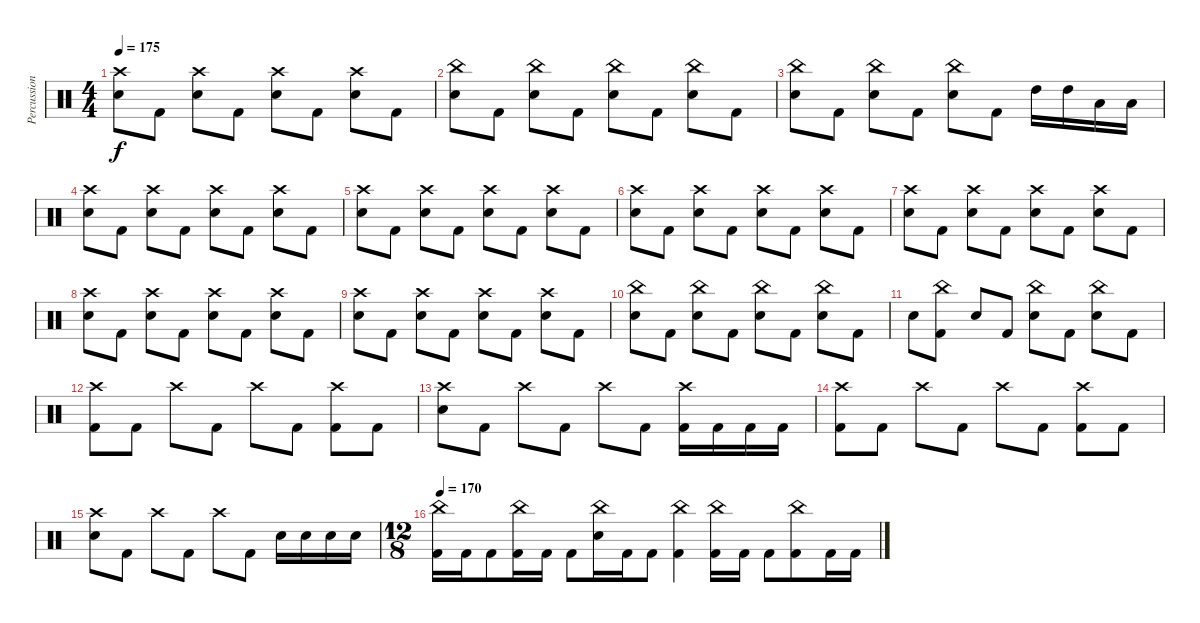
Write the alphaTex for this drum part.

\track ("Percussion" "Percussion") {instrument percussion}
\staff {score}
\articulation defaults
\ts (4 4)
\tempo 175
\clef neutral
\ks c
("Crash high (hit)" "Snare (hit) 2").8{dy f} "Kick (hit) 2".8 ("Crash high (hit)" "Snare (hit) 2").8 "Kick (hit) 2".8 ("Crash high (hit)" "Snare (hit) 2").8 "Kick (hit) 2".8 ("Crash high (hit)" "Snare (hit) 2").8 "Kick (hit) 2".8 |
("China (hit)" "Snare (hit) 2").8 "Kick (hit) 2".8 ("China (hit)" "Snare (hit) 2").8 "Kick (hit) 2".8 ("China (hit)" "Snare (hit) 2").8 "Kick (hit) 2".8 ("China (hit)" "Snare (hit) 2").8 "Kick (hit) 2".8 |
("China (hit)" "Snare (hit) 2").8 "Kick (hit) 2".8 ("China (hit)" "Snare (hit) 2").8 "Kick (hit) 2".8 ("China (hit)" "Snare (hit) 2").8 "Kick (hit) 2".8 "High Tom (hit)".16 "High Tom (hit)".16 "Low Tom (hit)".16 "Low Tom (hit)".16 |
("Crash high (hit)" "Snare (hit) 2").8 "Kick (hit) 2".8 ("Crash high (hit)" "Snare (hit) 2").8 "Kick (hit) 2".8 ("Crash high (hit)" "Snare (hit) 2").8 "Kick (hit) 2".8 ("Crash high (hit)" "Snare (hit) 2").8 "Kick (hit) 2".8 |
("Crash high (hit)" "Snare (hit) 2").8 "Kick (hit) 2".8 ("Crash high (hit)" "Snare (hit) 2").8 "Kick (hit) 2".8 ("Crash high (hit)" "Snare (hit) 2").8 "Kick (hit) 2".8 ("Crash high (hit)" "Snare (hit) 2").8 "Kick (hit) 2".8 |
("Crash high (hit)" "Snare (hit) 2").8 "Kick (hit) 2".8 ("Crash high (hit)" "Snare (hit) 2").8 "Kick (hit) 2".8 ("Crash high (hit)" "Snare (hit) 2").8 "Kick (hit) 2".8 ("Crash high (hit)" "Snare (hit) 2").8 "Kick (hit) 2".8 |
("Crash high (hit)" "Snare (hit) 2").8 "Kick (hit) 2".8 ("Crash high (hit)" "Snare (hit) 2").8 "Kick (hit) 2".8 ("Crash high (hit)" "Snare (hit) 2").8 "Kick (hit) 2".8 ("Crash high (hit)" "Snare (hit) 2").8 "Kick (hit) 2".8 |
("Crash high (hit)" "Snare (hit) 2").8 "Kick (hit) 2".8 ("Crash high (hit)" "Snare (hit) 2").8 "Kick (hit) 2".8 ("Crash high (hit)" "Snare (hit) 2").8 "Kick (hit) 2".8 ("Crash high (hit)" "Snare (hit) 2").8 "Kick (hit) 2".8 |
("Crash high (hit)" "Snare (hit) 2").8 "Kick (hit) 2".8 ("Crash high (hit)" "Snare (hit) 2").8 "Kick (hit) 2".8 ("Crash high (hit)" "Snare (hit) 2").8 "Kick (hit) 2".8 ("Crash high (hit)" "Snare (hit) 2").8 "Kick (hit) 2".8 |
("China (hit)" "Snare (hit) 2").8 "Kick (hit) 2".8 ("China (hit)" "Snare (hit) 2").8 "Kick (hit) 2".8 ("China (hit)" "Snare (hit) 2").8 "Kick (hit) 2".8 ("China (hit)" "Snare (hit) 2").8 "Kick (hit) 2".8 |
"Snare (hit) 2".8 ("China (hit)" "Kick (hit) 2").8 "Snare (hit) 2".8 "Kick (hit) 2".8 ("China (hit)" "Snare (hit) 2").8 "Kick (hit) 2".8 ("China (hit)" "Snare (hit) 2").8 "Kick (hit) 2".8 |
("Crash high (hit)" "Kick (hit) 2").8 "Kick (hit) 2".8 "Crash high (hit)".8 "Kick (hit) 2".8 "Crash high (hit)".8 "Kick (hit) 2".8 ("Crash high (hit)" "Kick (hit) 2").8 "Kick (hit) 2".8 |
("Crash high (hit)" "Snare (hit) 2").8 "Kick (hit) 2".8 "Crash high (hit)".8 "Kick (hit) 2".8 "Crash high (hit)".8 "Kick (hit) 2".8 ("Crash high (hit)" "Kick (hit) 2").16 "Kick (hit) 2".16 "Kick (hit) 2".16 "Kick (hit) 2".16 |
("Crash high (hit)" "Kick (hit) 2").8 "Kick (hit) 2".8 "Crash high (hit)".8 "Kick (hit) 2".8 "Crash high (hit)".8 "Kick (hit) 2".8 ("Crash high (hit)" "Kick (hit) 2").8 "Kick (hit) 2".8 |
("Crash high (hit)" "Snare (hit) 2").8 "Kick (hit) 2".8 "Crash high (hit)".8 "Kick (hit) 2".8 "Crash high (hit)".8 "Kick (hit) 2".8 "Snare (hit) 2".16 "Snare (hit) 2".16 "Snare (hit) 2".16 "Snare (hit) 2".16 |
\ts (12 8)
\tempo 170
("China (hit)" "Kick (hit) 2").16 "Kick (hit) 2".16 "Kick (hit) 2".8 ("China (hit)" "Kick (hit) 2").16 "Kick (hit) 2".16 "Kick (hit) 2".8 ("China (hit)" "Snare (hit) 2").16 "Kick (hit) 2".16 "Kick (hit) 2".8 ("China (hit)" "Kick (hit) 2").4 ("China (hit)" "Kick (hit) 2").16 "Kick (hit) 2".16 "Kick (hit) 2".8 ("China (hit)" "Kick (hit) 2").8 "Kick (hit) 2".16 "Kick (hit) 2".16
